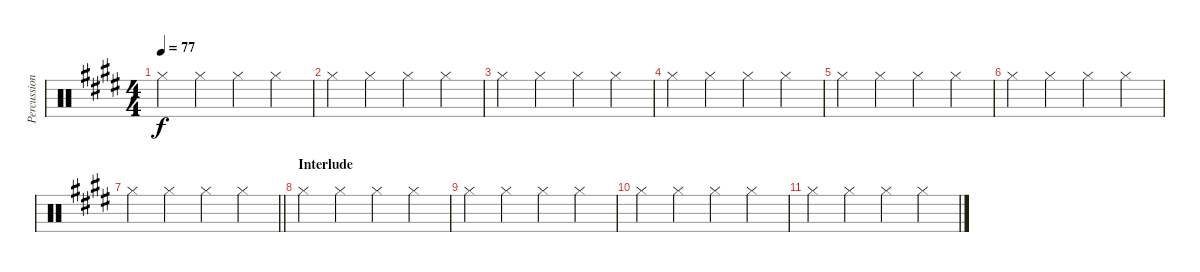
\track ("Percussion" "Percussion") {instrument percussion}
\staff {score}
\articulation defaults
\ts (4 4)
\tempo 77
\clef neutral
\ks c#minor "Hi-Hat (closed)".4{dy f} "Hi-Hat (closed)".4 "Hi-Hat (closed)".4 "Hi-Hat (closed)".4
|
"Hi-Hat (closed)".4 "Hi-Hat (closed)".4 "Hi-Hat (closed)".4 "Hi-Hat (closed)".4 |
"Hi-Hat (closed)".4 "Hi-Hat (closed)".4 "Hi-Hat (closed)".4 "Hi-Hat (closed)".4 |
"Hi-Hat (closed)".4 "Hi-Hat (closed)".4 "Hi-Hat (closed)".4 "Hi-Hat (closed)".4 |
"Hi-Hat (closed)".4 "Hi-Hat (closed)".4 "Hi-Hat (closed)".4 "Hi-Hat (closed)".4 |
"Hi-Hat (closed)".4 "Hi-Hat (closed)".4 "Hi-Hat (closed)".4 "Hi-Hat (closed)".4 |
\barLineRight lightlight "Hi-Hat (closed)".4 "Hi-Hat (closed)".4 "Hi-Hat (closed)".4 "Hi-Hat (closed)".4
|
\section ("" "Interlude")
"Hi-Hat (closed)".4 "Hi-Hat (closed)".4 "Hi-Hat (closed)".4 "Hi-Hat (closed)".4 |
"Hi-Hat (closed)".4 "Hi-Hat (closed)".4 "Hi-Hat (closed)".4 "Hi-Hat (closed)".4 |
"Hi-Hat (closed)".4 "Hi-Hat (closed)".4 "Hi-Hat (closed)".4 "Hi-Hat (closed)".4 |
"Hi-Hat (closed)".4 "Hi-Hat (closed)".4 "Hi-Hat (closed)".4 "Hi-Hat (closed)".4
